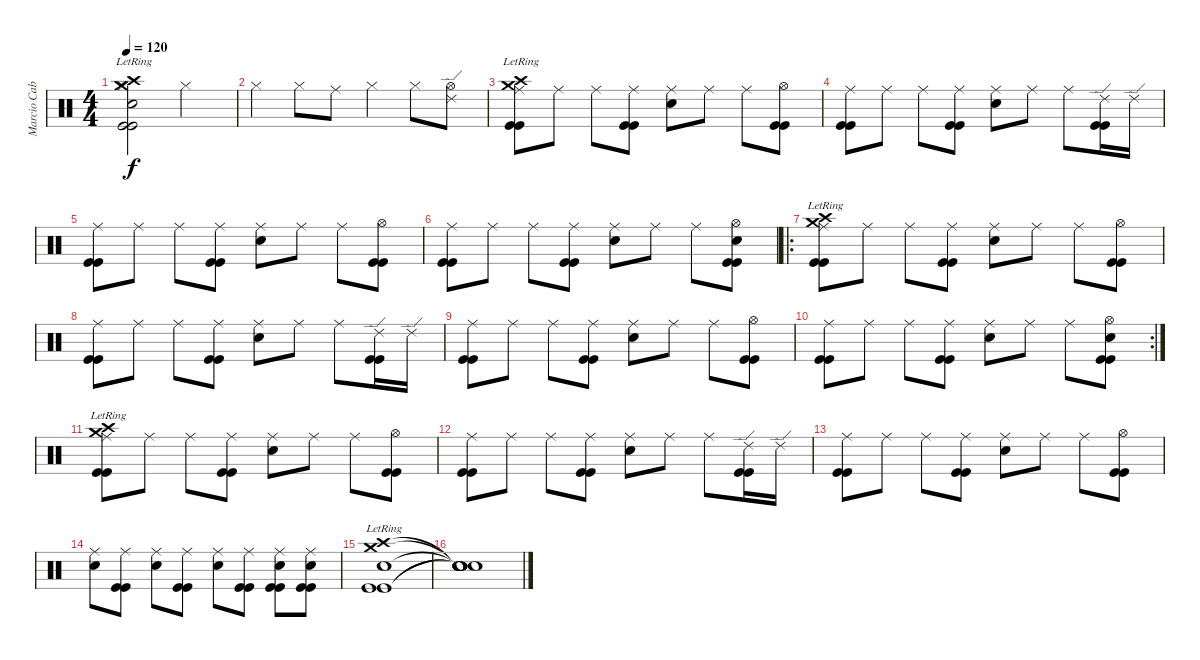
\track ("Marcio Cabrita" "Marcio Cab") {instrument percussion}
\staff {score}
\articulation defaults
\ts (4 4)
\tempo 120
\clef neutral
\ks c
("Crash high (hit)"{lr} "Crash medium (hit)"{lr} "Snare (hit) 2" "Hi-Hat (closed)" "Kick (hit)" "Kick (hit)").2{dy f} "Hi-Hat (closed)".2 |
"Hi-Hat (closed)".4 "Hi-Hat (closed)".8 "Ride (middle)".8 "Hi-Hat (closed)".4 "Hi-Hat (closed)".8 ("Ride (edge) 2" "Hi-Hat (open)").8 |
("Crash high (hit)"{lr} "Crash medium (hit)"{lr} "Ride (middle)" "Kick (hit)" "Kick (hit)").8 "Ride (middle)".8 "Ride (middle)".8 ("Ride (middle)" "Kick (hit)" "Kick (hit)").8 ("Snare (hit) 2" "Ride (middle)").8 "Ride (middle)".8 "Ride (middle)".8 ("Hi-Hat (open)" "Kick (hit)" "Kick (hit)").8 |
("Ride (middle)" "Kick (hit)" "Kick (hit)").8 "Ride (middle)".8 "Ride (middle)".8 ("Ride (middle)" "Kick (hit)" "Kick (hit)").8 ("Snare (hit) 2" "Ride (middle)").8 "Ride (middle)".8 "Ride (middle)".8 ("Ride (edge) 2" "Kick (hit)" "Kick (hit)").16 "Ride (edge) 2".16 |
("Ride (middle)" "Kick (hit)" "Kick (hit)").8 "Ride (middle)".8 "Ride (middle)".8 ("Ride (middle)" "Kick (hit)" "Kick (hit)").8 ("Snare (hit) 2" "Ride (middle)").8 "Ride (middle)".8 "Ride (middle)".8 ("Hi-Hat (open)" "Kick (hit)" "Kick (hit)").8 |
("Ride (middle)" "Kick (hit)" "Kick (hit)").8 "Ride (middle)".8 "Ride (middle)".8 ("Ride (middle)" "Kick (hit)" "Kick (hit)").8 ("Snare (hit) 2" "Ride (middle)").8 "Ride (middle)".8 "Ride (middle)".8 ("Snare (hit) 2" "Hi-Hat (open)" "Kick (hit)" "Kick (hit)").8 |
\ro
("Crash high (hit)"{lr} "Crash medium (hit)"{lr} "Ride (middle)" "Kick (hit)" "Kick (hit)").8 "Ride (middle)".8 "Ride (middle)".8 ("Ride (middle)" "Kick (hit)" "Kick (hit)").8 ("Snare (hit) 2" "Ride (middle)").8 "Ride (middle)".8 "Ride (middle)".8 ("Hi-Hat (open)" "Kick (hit)" "Kick (hit)").8 |
("Ride (middle)" "Kick (hit)" "Kick (hit)").8 "Ride (middle)".8 "Ride (middle)".8 ("Ride (middle)" "Kick (hit)" "Kick (hit)").8 ("Snare (hit) 2" "Ride (middle)").8 "Ride (middle)".8 "Ride (middle)".8 ("Ride (edge) 2" "Kick (hit)" "Kick (hit)").16 "Ride (edge) 2".16 |
("Ride (middle)" "Kick (hit)" "Kick (hit)").8 "Ride (middle)".8 "Ride (middle)".8 ("Ride (middle)" "Kick (hit)" "Kick (hit)").8 ("Snare (hit) 2" "Ride (middle)").8 "Ride (middle)".8 "Ride (middle)".8 ("Hi-Hat (open)" "Kick (hit)" "Kick (hit)").8 |
\rc 2
("Ride (middle)" "Kick (hit)" "Kick (hit)").8 "Ride (middle)".8 "Ride (middle)".8 ("Ride (middle)" "Kick (hit)" "Kick (hit)").8 ("Snare (hit) 2" "Ride (middle)").8 "Ride (middle)".8 "Ride (middle)".8 ("Snare (hit) 2" "Hi-Hat (open)" "Kick (hit)" "Kick (hit)").8 |
("Crash high (hit)"{lr} "Crash medium (hit)"{lr} "Ride (middle)" "Kick (hit)" "Kick (hit)").8 "Ride (middle)".8 "Ride (middle)".8 ("Ride (middle)" "Kick (hit)" "Kick (hit)").8 ("Snare (hit) 2" "Ride (middle)").8 "Ride (middle)".8 "Ride (middle)".8 ("Hi-Hat (open)" "Kick (hit)" "Kick (hit)").8 |
("Ride (middle)" "Kick (hit)" "Kick (hit)").8 "Ride (middle)".8 "Ride (middle)".8 ("Ride (middle)" "Kick (hit)" "Kick (hit)").8 ("Snare (hit) 2" "Ride (middle)").8 "Ride (middle)".8 "Ride (middle)".8 ("Ride (edge) 2" "Kick (hit)" "Kick (hit)").16 "Ride (edge) 2".16 |
("Ride (middle)" "Kick (hit)" "Kick (hit)").8 "Ride (middle)".8 "Ride (middle)".8 ("Ride (middle)" "Kick (hit)" "Kick (hit)").8 ("Snare (hit) 2" "Ride (middle)").8 "Ride (middle)".8 "Ride (middle)".8 ("Hi-Hat (open)" "Kick (hit)" "Kick (hit)").8 |
("Snare (hit) 2" "Ride (middle)").8 ("Ride (middle)" "Kick (hit)" "Kick (hit)").8 ("Snare (hit) 2" "Ride (middle)").8 ("Ride (middle)" "Kick (hit)" "Kick (hit)").8 ("Snare (hit) 2" "Ride (middle)").8 ("Ride (middle)" "Kick (hit)" "Kick (hit)").8 ("Snare (hit) 2" "Ride (middle)" "Kick (hit)" "Kick (hit)").8 ("Snare (hit) 2" "Ride (middle)" "Kick (hit)" "Kick (hit)").8 |
("Crash high (hit)"{lr} "Crash medium (hit)"{lr} "Snare (hit) 2" "Kick (hit)" "Kick (hit)").1 |
("Snare (hit)"{t} "Snare (hit)"{t} "Snare (hit)"{t} "Snare (hit)"{t} "Snare (hit)"{t}).1
